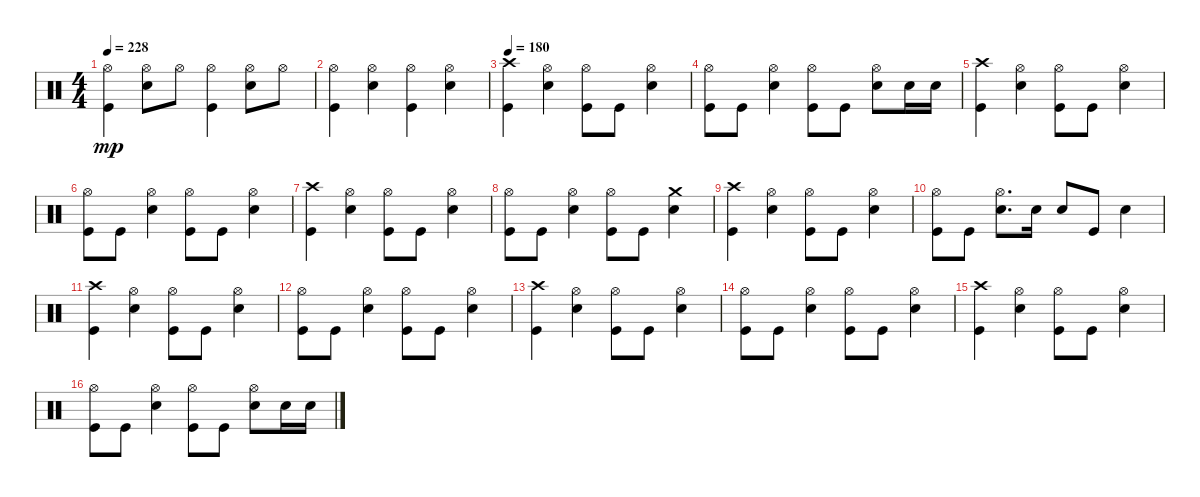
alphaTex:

\track "" {instrument percussion}
\staff {score}
\articulation defaults
\ts (4 4)
\tempo 228
\clef neutral
\ks c
("Kick (hit)" "Hi-Hat (open)").4{dy mp} ("Electric Snare (hit)" "Hi-Hat (open)").8 "Hi-Hat (open)".8 ("Kick (hit)" "Hi-Hat (open)").4 ("Electric Snare (hit)" "Hi-Hat (open)").8 "Hi-Hat (open)".8 |
("Kick (hit)" "Hi-Hat (open)").4 ("Electric Snare (hit)" "Hi-Hat (open)").4 ("Kick (hit)" "Hi-Hat (open)").4 ("Electric Snare (hit)" "Hi-Hat (open)").4 |
\tempo 180
("Kick (hit)" "Crash high (hit)").4 ("Electric Snare (hit)" "Hi-Hat (open)").4 ("Kick (hit)" "Hi-Hat (open)").8 "Kick (hit)".8 ("Electric Snare (hit)" "Hi-Hat (open)").4 |
("Kick (hit)" "Hi-Hat (open)").8 "Kick (hit)".8 ("Electric Snare (hit)" "Hi-Hat (open)").4 ("Kick (hit)" "Hi-Hat (open)").8 "Kick (hit)".8 ("Electric Snare (hit)" "Hi-Hat (open)").8 "Electric Snare (hit)".16 "Electric Snare (hit)".16 |
("Kick (hit)" "Crash high (hit)").4 ("Electric Snare (hit)" "Hi-Hat (open)").4 ("Kick (hit)" "Hi-Hat (open)").8 "Kick (hit)".8 ("Electric Snare (hit)" "Hi-Hat (open)").4 |
("Kick (hit)" "Hi-Hat (open)").8 "Kick (hit)".8 ("Electric Snare (hit)" "Hi-Hat (open)").4 ("Kick (hit)" "Hi-Hat (open)").8 "Kick (hit)".8 ("Electric Snare (hit)" "Hi-Hat (open)").4 |
("Kick (hit)" "Crash high (hit)").4 ("Electric Snare (hit)" "Hi-Hat (open)").4 ("Kick (hit)" "Hi-Hat (open)").8 "Kick (hit)".8 ("Electric Snare (hit)" "Hi-Hat (open)").4 |
("Kick (hit)" "Hi-Hat (open)").8 "Kick (hit)".8 ("Electric Snare (hit)" "Hi-Hat (open)").4 ("Kick (hit)" "Hi-Hat (open)").8 "Kick (hit)".8 ("Electric Snare (hit)" "Crash medium (hit)").4 |
("Kick (hit)" "Crash high (hit)").4 ("Electric Snare (hit)" "Hi-Hat (open)").4 ("Kick (hit)" "Hi-Hat (open)").8 "Kick (hit)".8 ("Electric Snare (hit)" "Hi-Hat (open)").4 |
("Kick (hit)" "Hi-Hat (open)").8 "Kick (hit)".8 ("Electric Snare (hit)" "Hi-Hat (open)").8{d} "Electric Snare (hit)".16 "Electric Snare (hit)".8 "Kick (hit)".8 "Electric Snare (hit)".4 |
("Kick (hit)" "Crash high (hit)").4 ("Electric Snare (hit)" "Hi-Hat (open)").4 ("Kick (hit)" "Hi-Hat (open)").8 "Kick (hit)".8 ("Electric Snare (hit)" "Hi-Hat (open)").4 |
("Kick (hit)" "Hi-Hat (open)").8 "Kick (hit)".8 ("Electric Snare (hit)" "Hi-Hat (open)").4 ("Kick (hit)" "Hi-Hat (open)").8 "Kick (hit)".8 ("Electric Snare (hit)" "Hi-Hat (open)").4 |
("Kick (hit)" "Crash high (hit)").4 ("Electric Snare (hit)" "Hi-Hat (open)").4 ("Kick (hit)" "Hi-Hat (open)").8 "Kick (hit)".8 ("Electric Snare (hit)" "Hi-Hat (open)").4 |
("Kick (hit)" "Hi-Hat (open)").8 "Kick (hit)".8 ("Electric Snare (hit)" "Hi-Hat (open)").4 ("Kick (hit)" "Hi-Hat (open)").8 "Kick (hit)".8 ("Electric Snare (hit)" "Hi-Hat (open)").4 |
("Kick (hit)" "Crash high (hit)").4 ("Electric Snare (hit)" "Hi-Hat (open)").4 ("Kick (hit)" "Hi-Hat (open)").8 "Kick (hit)".8 ("Electric Snare (hit)" "Hi-Hat (open)").4 |
("Kick (hit)" "Hi-Hat (open)").8 "Kick (hit)".8 ("Electric Snare (hit)" "Hi-Hat (open)").4 ("Kick (hit)" "Hi-Hat (open)").8 "Kick (hit)".8 ("Electric Snare (hit)" "Hi-Hat (open)").8 "Electric Snare (hit)".16 "Electric Snare (hit)".16
